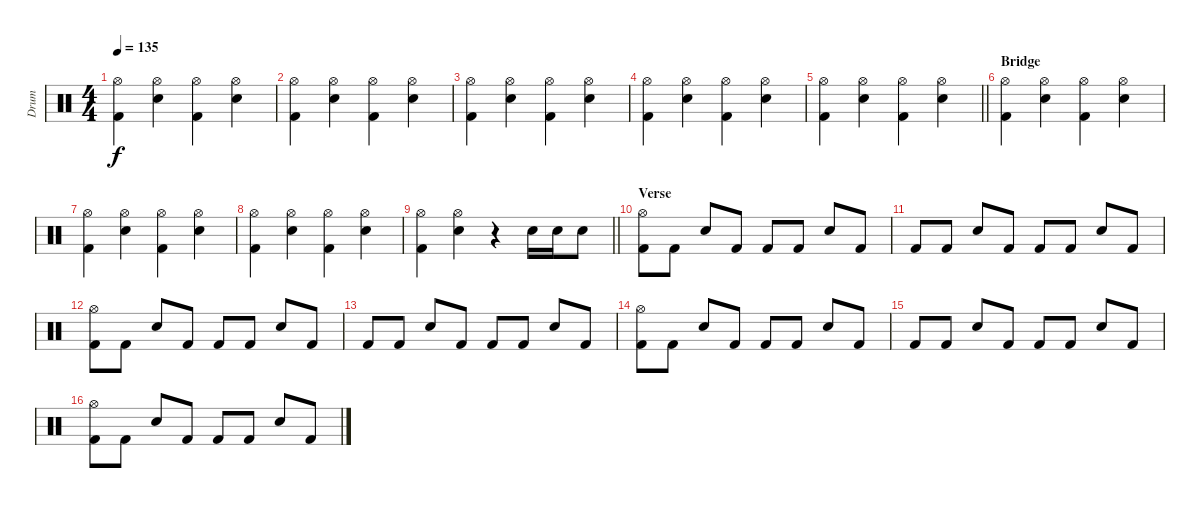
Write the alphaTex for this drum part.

\track ("Drum" "Drum") {instrument percussion}
\staff {score}
\articulation defaults
\ts (4 4)
\tempo 135
\clef neutral
\ks c
("Hi-Hat (open)" "Kick (hit) 2").4{dy f} ("Hi-Hat (open)" "Electric Snare (hit)").4 ("Hi-Hat (open)" "Kick (hit) 2").4 ("Hi-Hat (open)" "Electric Snare (hit)").4 |
("Hi-Hat (open)" "Kick (hit) 2").4 ("Hi-Hat (open)" "Electric Snare (hit)").4 ("Hi-Hat (open)" "Kick (hit) 2").4 ("Hi-Hat (open)" "Electric Snare (hit)").4 |
("Hi-Hat (open)" "Kick (hit) 2").4 ("Hi-Hat (open)" "Electric Snare (hit)").4 ("Hi-Hat (open)" "Kick (hit) 2").4 ("Hi-Hat (open)" "Electric Snare (hit)").4 |
("Hi-Hat (open)" "Kick (hit) 2").4 ("Hi-Hat (open)" "Electric Snare (hit)").4 ("Hi-Hat (open)" "Kick (hit) 2").4 ("Hi-Hat (open)" "Electric Snare (hit)").4 |
\barLineRight lightlight
("Hi-Hat (open)" "Kick (hit) 2").4 ("Hi-Hat (open)" "Electric Snare (hit)").4 ("Hi-Hat (open)" "Kick (hit) 2").4 ("Hi-Hat (open)" "Electric Snare (hit)").4 |
\section ("" "Bridge")
("Hi-Hat (open)" "Kick (hit) 2").4 ("Hi-Hat (open)" "Electric Snare (hit)").4 ("Hi-Hat (open)" "Kick (hit) 2").4 ("Hi-Hat (open)" "Electric Snare (hit)").4 |
("Hi-Hat (open)" "Kick (hit) 2").4 ("Hi-Hat (open)" "Electric Snare (hit)").4 ("Hi-Hat (open)" "Kick (hit) 2").4 ("Hi-Hat (open)" "Electric Snare (hit)").4 |
("Hi-Hat (open)" "Kick (hit) 2").4 ("Hi-Hat (open)" "Electric Snare (hit)").4 ("Hi-Hat (open)" "Kick (hit) 2").4 ("Hi-Hat (open)" "Electric Snare (hit)").4 |
\barLineRight lightlight
("Hi-Hat (open)" "Kick (hit) 2").4 ("Hi-Hat (open)" "Electric Snare (hit)").4 r.4 "Electric Snare (hit)".16 "Electric Snare (hit)".16 "Electric Snare (hit)".8 |
\section ("" "Verse")
("Hi-Hat (open)" "Kick (hit) 2").8 "Kick (hit) 2".8 "Electric Snare (hit)".8 "Kick (hit) 2".8 "Kick (hit) 2".8 "Kick (hit) 2".8 "Electric Snare (hit)".8 "Kick (hit) 2".8 |
"Kick (hit) 2".8 "Kick (hit) 2".8 "Electric Snare (hit)".8 "Kick (hit) 2".8 "Kick (hit) 2".8 "Kick (hit) 2".8 "Electric Snare (hit)".8 "Kick (hit) 2".8 |
("Hi-Hat (open)" "Kick (hit) 2").8 "Kick (hit) 2".8 "Electric Snare (hit)".8 "Kick (hit) 2".8 "Kick (hit) 2".8 "Kick (hit) 2".8 "Electric Snare (hit)".8 "Kick (hit) 2".8 |
"Kick (hit) 2".8 "Kick (hit) 2".8 "Electric Snare (hit)".8 "Kick (hit) 2".8 "Kick (hit) 2".8 "Kick (hit) 2".8 "Electric Snare (hit)".8 "Kick (hit) 2".8 |
("Hi-Hat (open)" "Kick (hit) 2").8 "Kick (hit) 2".8 "Electric Snare (hit)".8 "Kick (hit) 2".8 "Kick (hit) 2".8 "Kick (hit) 2".8 "Electric Snare (hit)".8 "Kick (hit) 2".8 |
"Kick (hit) 2".8 "Kick (hit) 2".8 "Electric Snare (hit)".8 "Kick (hit) 2".8 "Kick (hit) 2".8 "Kick (hit) 2".8 "Electric Snare (hit)".8 "Kick (hit) 2".8 |
("Hi-Hat (open)" "Kick (hit) 2").8 "Kick (hit) 2".8 "Electric Snare (hit)".8 "Kick (hit) 2".8 "Kick (hit) 2".8 "Kick (hit) 2".8 "Electric Snare (hit)".8 "Kick (hit) 2".8
